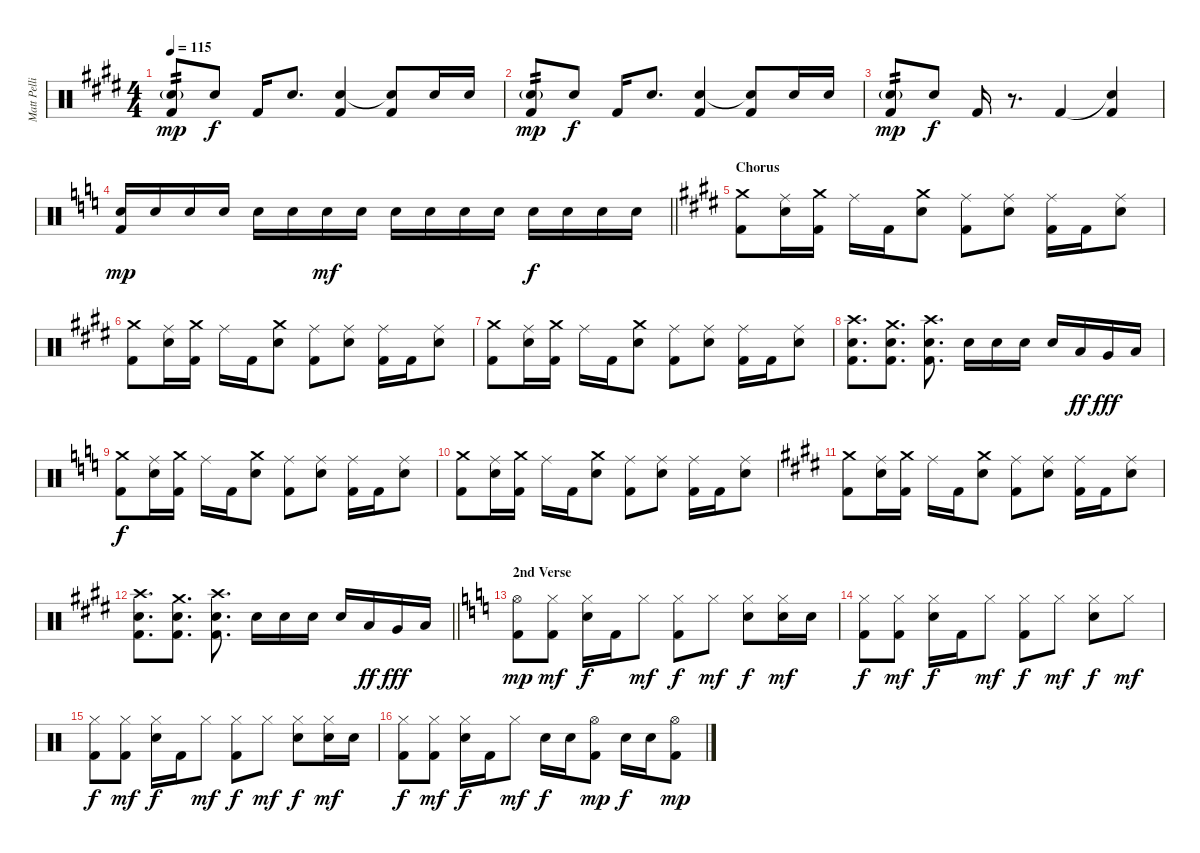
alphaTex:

\track ("Matt Pellissier" "Matt Pelli") {instrument percussion}
\staff {score}
\articulation defaults
\ts (4 4)
\tempo 115
\clef neutral
\ks e
("Snare (hit) 2"{g} "Kick (hit) 2").8{tp 2 dy mp} "Snare (hit) 2".8{dy f} "Kick (hit) 2".16 "Snare (hit) 2".8{d} ("Snare (hit) 2" "Kick (hit) 2").4 ("Snare (hit)"{t} "Kick (hit) 2").8 "Snare (hit) 2".16 "Snare (hit) 2".16 |
("Snare (hit) 2"{g} "Kick (hit) 2").8{tp 2 dy mp} "Snare (hit) 2".8{dy f} "Kick (hit) 2".16 "Snare (hit) 2".8{d} ("Snare (hit) 2" "Kick (hit) 2").4 ("Snare (hit)"{t} "Kick (hit) 2").8 "Snare (hit) 2".16 "Snare (hit) 2".16 |
("Snare (hit) 2"{g} "Kick (hit) 2").8{tp 2 dy mp} "Snare (hit) 2".8{dy f} "Kick (hit) 2".16 r.8{d} "Kick (hit) 2".4 ("Snare (hit)"{t} "Kick (hit) 2").4 |
\barLineRight lightlight
\ks c
("Snare (hit) 2" "Kick (hit) 2").16{dy mp volume 16} "Snare (hit) 2".16 "Snare (hit) 2".16 "Snare (hit) 2".16 "Snare (hit) 2".16 "Snare (hit) 2".16 "Snare (hit) 2".16{dy mf} "Snare (hit) 2".16 "Snare (hit) 2".16 "Snare (hit) 2".16 "Snare (hit) 2".16 "Snare (hit) 2".16 "Snare (hit) 2".16{dy f} "Snare (hit) 2".16 "Snare (hit) 2".16 "Snare (hit) 2".16 |
\section ("" "Chorus")
\ks e
("Crash medium (hit)" "Kick (hit) 2").8{volume 14} ("Ride (middle)" "Snare (hit) 2").16 ("Crash medium (hit)" "Kick (hit) 2").16 "Ride (middle)".16 "Kick (hit) 2".16 ("Crash medium (hit)" "Snare (hit) 2").8 ("Ride (middle)" "Kick (hit) 2").8 ("Ride (middle)" "Snare (hit) 2").8 ("Ride (middle)" "Kick (hit) 2").16 "Kick (hit) 2".16 ("Ride (middle)" "Snare (hit) 2").8 |
("Crash medium (hit)" "Kick (hit) 2").8 ("Ride (middle)" "Snare (hit) 2").16 ("Crash medium (hit)" "Kick (hit) 2").16 "Ride (middle)".16 "Kick (hit) 2".16 ("Crash medium (hit)" "Snare (hit) 2").8 ("Ride (middle)" "Kick (hit) 2").8 ("Ride (middle)" "Snare (hit) 2").8 ("Ride (middle)" "Kick (hit) 2").16 "Kick (hit) 2".16 ("Ride (middle)" "Snare (hit) 2").8 |
("Crash medium (hit)" "Kick (hit) 2").8 ("Ride (middle)" "Snare (hit) 2").16 ("Crash medium (hit)" "Kick (hit) 2").16 "Ride (middle)".16 "Kick (hit) 2".16 ("Crash medium (hit)" "Snare (hit) 2").8 ("Ride (middle)" "Kick (hit) 2").8 ("Ride (middle)" "Snare (hit) 2").8 ("Ride (middle)" "Kick (hit) 2").16 "Kick (hit) 2".16 ("Ride (middle)" "Snare (hit) 2").8 |
("Crash high (hit)" "Snare (hit) 2" "Kick (hit) 2").8{d} ("Crash medium (hit)" "Snare (hit) 2" "Kick (hit) 2").8{d} ("Crash high (hit)" "Snare (hit) 2" "Kick (hit) 2").8{d} "Snare (hit) 2".16 "Snare (hit) 2".16 "Snare (hit) 2".16 "Snare (hit) 2".16 "Low Tom (hit)".16{dy ff} "Very Low Tom (hit)".16{dy fff} "Low Floor Tom (hit)".16 |
\ks c
("Crash medium (hit)" "Kick (hit) 2").8{dy f} ("Ride (middle)" "Snare (hit) 2").16 ("Crash medium (hit)" "Kick (hit) 2").16 "Ride (middle)".16 "Kick (hit) 2".16 ("Crash medium (hit)" "Snare (hit) 2").8 ("Ride (middle)" "Kick (hit) 2").8 ("Ride (middle)" "Snare (hit) 2").8 ("Ride (middle)" "Kick (hit) 2").16 "Kick (hit) 2".16 ("Ride (middle)" "Snare (hit) 2").8 |
("Crash medium (hit)" "Kick (hit) 2").8 ("Ride (middle)" "Snare (hit) 2").16 ("Crash medium (hit)" "Kick (hit) 2").16 "Ride (middle)".16 "Kick (hit) 2".16 ("Crash medium (hit)" "Snare (hit) 2").8 ("Ride (middle)" "Kick (hit) 2").8 ("Ride (middle)" "Snare (hit) 2").8 ("Ride (middle)" "Kick (hit) 2").16 "Kick (hit) 2".16 ("Ride (middle)" "Snare (hit) 2").8 |
\ks e
("Crash medium (hit)" "Kick (hit) 2").8 ("Ride (middle)" "Snare (hit) 2").16 ("Crash medium (hit)" "Kick (hit) 2").16 "Ride (middle)".16 "Kick (hit) 2".16 ("Crash medium (hit)" "Snare (hit) 2").8 ("Ride (middle)" "Kick (hit) 2").8 ("Ride (middle)" "Snare (hit) 2").8 ("Ride (middle)" "Kick (hit) 2").16 "Kick (hit) 2".16 ("Ride (middle)" "Snare (hit) 2").8 |
\barLineRight lightlight
("Crash high (hit)" "Snare (hit) 2" "Kick (hit) 2").8{d} ("Crash medium (hit)" "Snare (hit) 2" "Kick (hit) 2").8{d} ("Crash high (hit)" "Snare (hit) 2" "Kick (hit) 2").8{d} "Snare (hit) 2".16 "Snare (hit) 2".16 "Snare (hit) 2".16 "Snare (hit) 2".16 "Low Tom (hit)".16{dy ff} "Very Low Tom (hit)".16{dy fff} "Low Floor Tom (hit)".16 |
\section ("" "2nd Verse")
\ks c
("Hi-Hat (open)" "Kick (hit) 2").8{dy mp} ("Hi-Hat (closed)" "Kick (hit) 2").8{dy mf} ("Hi-Hat (closed)" "Snare (hit) 2").16{dy f} "Kick (hit) 2".16 "Hi-Hat (closed)".8{dy mf} ("Hi-Hat (closed)" "Kick (hit) 2").8{dy f} "Hi-Hat (closed)".8{dy mf} ("Hi-Hat (closed)" "Snare (hit) 2").8{dy f} ("Hi-Hat (closed)" "Snare (hit) 2").16{dy mf} "Snare (hit) 2".16 |
("Hi-Hat (closed)" "Kick (hit) 2").8{dy f} ("Hi-Hat (closed)" "Kick (hit) 2").8{dy mf} ("Hi-Hat (closed)" "Snare (hit) 2").16{dy f} "Kick (hit) 2".16 "Hi-Hat (closed)".8{dy mf} ("Hi-Hat (closed)" "Kick (hit) 2").8{dy f} "Hi-Hat (closed)".8{dy mf} ("Hi-Hat (closed)" "Snare (hit) 2").8{dy f} "Hi-Hat (closed)".8{dy mf} |
("Hi-Hat (closed)" "Kick (hit) 2").8{dy f} ("Hi-Hat (closed)" "Kick (hit) 2").8{dy mf} ("Hi-Hat (closed)" "Snare (hit) 2").16{dy f} "Kick (hit) 2".16 "Hi-Hat (closed)".8{dy mf} ("Hi-Hat (closed)" "Kick (hit) 2").8{dy f} "Hi-Hat (closed)".8{dy mf} ("Hi-Hat (closed)" "Snare (hit) 2").8{dy f} ("Hi-Hat (closed)" "Snare (hit) 2").16{dy mf} "Snare (hit) 2".16 |
("Hi-Hat (closed)" "Kick (hit) 2").8{dy f} ("Hi-Hat (closed)" "Kick (hit) 2").8{dy mf} ("Hi-Hat (closed)" "Snare (hit) 2").16{dy f} "Kick (hit) 2".16 "Hi-Hat (closed)".8{dy mf} "Snare (hit) 2".16{dy f} "Snare (hit) 2".16 ("Hi-Hat (open)" "Kick (hit) 2").8{dy mp} "Snare (hit) 2".16{dy f} "Snare (hit) 2".16 ("Hi-Hat (open)" "Kick (hit) 2").8{dy mp}
